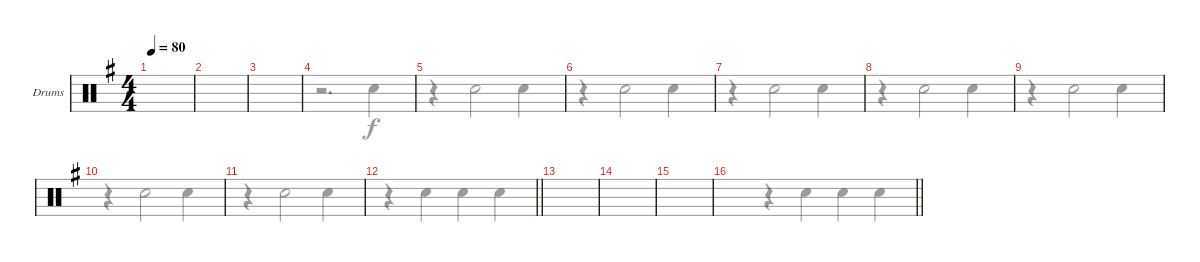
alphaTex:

\defaultSystemsLayout 4
\bracketExtendMode groupsimilarinstruments
\firstSystemTrackNameOrientation horizontal
\otherSystemsTrackNameOrientation horizontal
\track ("Drumkit" "Drums") {instrument percussion}
\staff {score}
\articulation defaults
\voice
\ts (4 4)
\scale
0.544241
\tempo 80
\accidentals auto
\clef neutral
\ottava regular
\simile none
\ks eminor
|
\scale
0.4557 |
\scale
0.579699 |
\scale
0.420228 |
\scale
0.512857 |
\scale
0.487179 |
\scale
0.51 |
\scale
0.490028 |
\scale
0.618516 |
\scale
0.381146 |
\scale
0.607089 |
\scale
0.392523
\barLineRight lightlight
|
\scale
0.518571 |
\scale
0.481481 |
\scale
0.51 |
\scale
0.490028
\barLineRight lightlight
\voice
\clef neutral
\ottava regular
\simile none
\ks eminor
|
|
|
r.2{d} "Snare (hit) 2".4 |
r.4 "Snare (hit) 2".2 "Snare (hit) 2".4 |
r.4 "Snare (hit) 2".2 "Snare (hit) 2".4 |
r.4 "Snare (hit) 2".2 "Snare (hit) 2".4 |
r.4 "Snare (hit) 2".2 "Snare (hit) 2".4 |
r.4 "Snare (hit) 2".2 "Snare (hit) 2".4 |
r.4 "Snare (hit) 2".2 "Snare (hit) 2".4 |
r.4 "Snare (hit) 2".2 "Snare (hit) 2".4 |
\barLineRight lightlight
r.4 "Snare (hit) 2".4 "Snare (hit) 2".4 "Snare (hit) 2".4 |
|
|
|
\barLineRight lightlight
r.4 "Snare (hit) 2".4 "Snare (hit) 2".4 "Snare (hit) 2".4
